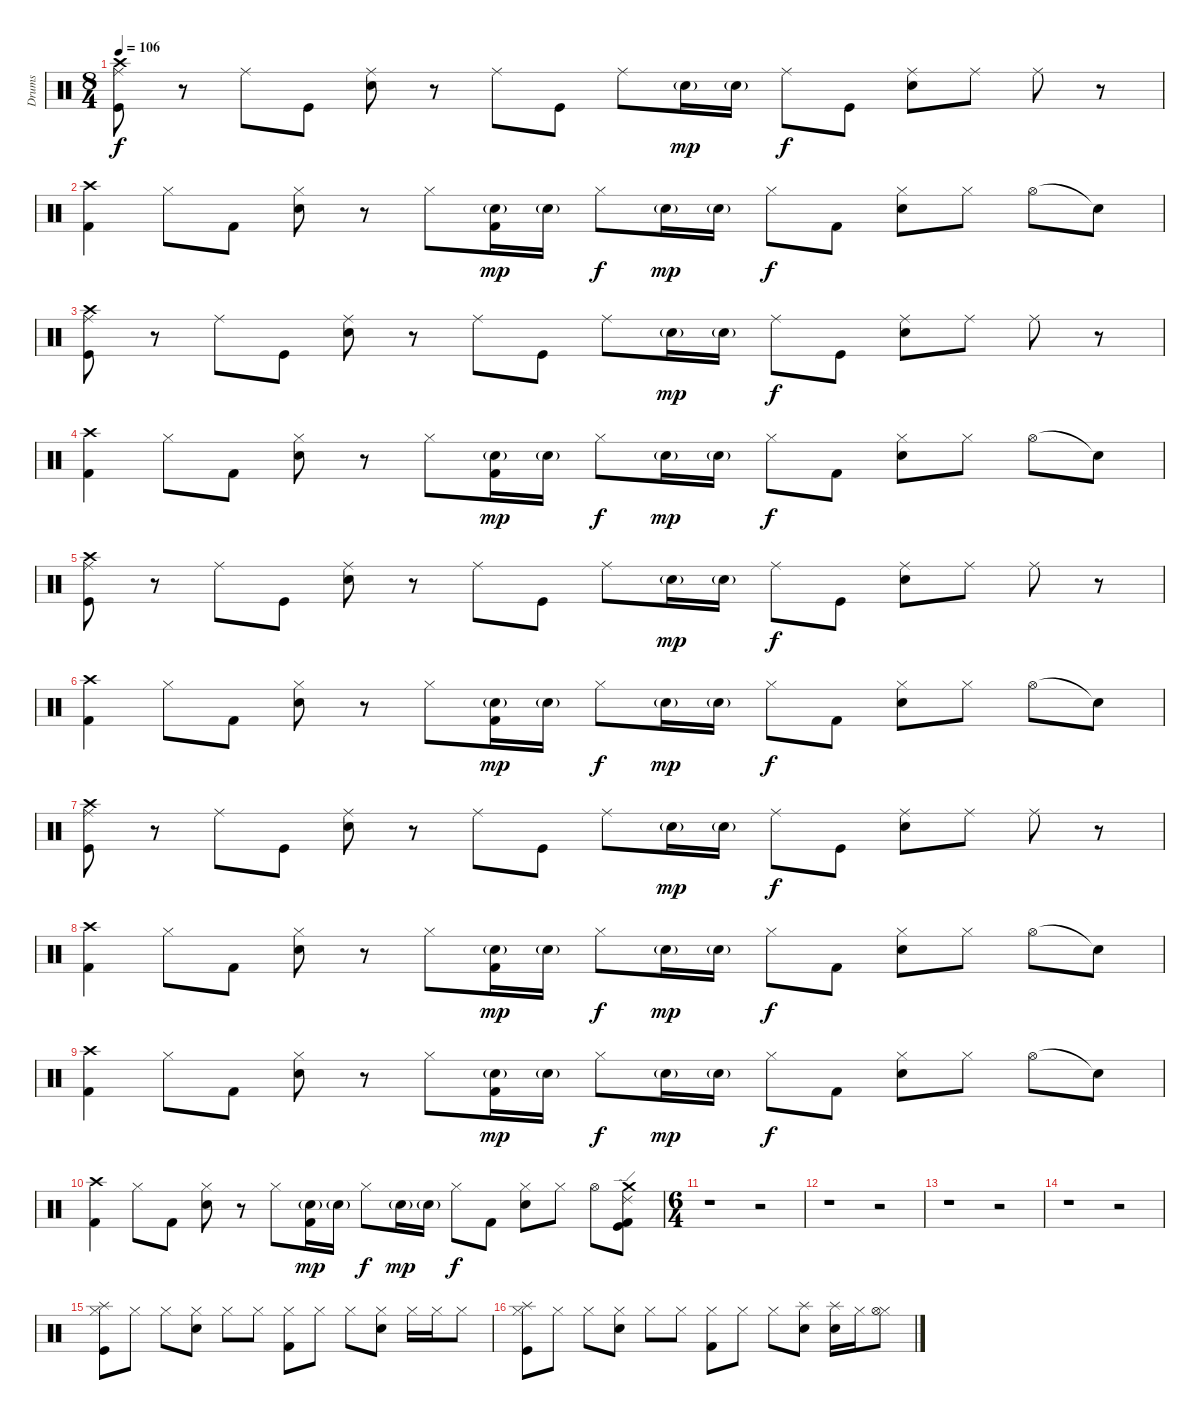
\track ("Drums" "Drums") {instrument percussion}
\staff {score}
\articulation defaults
\ts (8 4)
\tempo 106
\clef neutral
\ks c
("Ride (middle)" "Crash high (hit)" "Kick (hit)").8{dy f} r.8 "Ride (middle)".8 "Kick (hit)".8 ("Ride (middle)" "Electric Snare (hit)").8 r.8 "Ride (middle)".8 "Kick (hit)".8 "Ride (middle)".8 "Electric Snare (hit)"{g}.16{dy mp} "Electric Snare (hit)"{g}.16 "Ride (middle)".8{dy f} "Kick (hit)".8 ("Ride (middle)" "Electric Snare (hit)").8 "Ride (middle)".8 "Ride (middle)".8 r.8 |
("Crash high (hit)" "Kick (hit) 2").4 "Hi-Hat (closed)".8 "Kick (hit) 2".8 ("Hi-Hat (closed)" "Electric Snare (hit)").8 r.8 "Hi-Hat (closed)".8 ("Electric Snare (hit)"{g} "Kick (hit) 2").16{dy mp} "Electric Snare (hit)"{g}.16 "Hi-Hat (closed)".8{dy f} "Electric Snare (hit)"{g}.16{dy mp} "Electric Snare (hit)"{g}.16 "Hi-Hat (closed)".8{dy f} "Kick (hit) 2".8 ("Hi-Hat (closed)" "Electric Snare (hit)").8 "Hi-Hat (closed)".8 "Hi-Hat (open)".8 "Snare (hit)"{t}.8 |
("Ride (middle)" "Crash high (hit)" "Kick (hit)").8 r.8 "Ride (middle)".8 "Kick (hit)".8 ("Ride (middle)" "Electric Snare (hit)").8 r.8 "Ride (middle)".8 "Kick (hit)".8 "Ride (middle)".8 "Electric Snare (hit)"{g}.16{dy mp} "Electric Snare (hit)"{g}.16 "Ride (middle)".8{dy f} "Kick (hit)".8 ("Ride (middle)" "Electric Snare (hit)").8 "Ride (middle)".8 "Ride (middle)".8 r.8 |
("Crash high (hit)" "Kick (hit) 2").4 "Hi-Hat (closed)".8 "Kick (hit) 2".8 ("Hi-Hat (closed)" "Electric Snare (hit)").8 r.8 "Hi-Hat (closed)".8 ("Electric Snare (hit)"{g} "Kick (hit) 2").16{dy mp} "Electric Snare (hit)"{g}.16 "Hi-Hat (closed)".8{dy f} "Electric Snare (hit)"{g}.16{dy mp} "Electric Snare (hit)"{g}.16 "Hi-Hat (closed)".8{dy f} "Kick (hit) 2".8 ("Hi-Hat (closed)" "Electric Snare (hit)").8 "Hi-Hat (closed)".8 "Hi-Hat (open)".8 "Snare (hit)"{t}.8 |
("Ride (middle)" "Crash high (hit)" "Kick (hit)").8 r.8 "Ride (middle)".8 "Kick (hit)".8 ("Ride (middle)" "Electric Snare (hit)").8 r.8 "Ride (middle)".8 "Kick (hit)".8 "Ride (middle)".8 "Electric Snare (hit)"{g}.16{dy mp} "Electric Snare (hit)"{g}.16 "Ride (middle)".8{dy f} "Kick (hit)".8 ("Ride (middle)" "Electric Snare (hit)").8 "Ride (middle)".8 "Ride (middle)".8 r.8 |
("Crash high (hit)" "Kick (hit) 2").4 "Hi-Hat (closed)".8 "Kick (hit) 2".8 ("Hi-Hat (closed)" "Electric Snare (hit)").8 r.8 "Hi-Hat (closed)".8 ("Electric Snare (hit)"{g} "Kick (hit) 2").16{dy mp} "Electric Snare (hit)"{g}.16 "Hi-Hat (closed)".8{dy f} "Electric Snare (hit)"{g}.16{dy mp} "Electric Snare (hit)"{g}.16 "Hi-Hat (closed)".8{dy f} "Kick (hit) 2".8 ("Hi-Hat (closed)" "Electric Snare (hit)").8 "Hi-Hat (closed)".8 "Hi-Hat (open)".8 "Snare (hit)"{t}.8 |
("Ride (middle)" "Crash high (hit)" "Kick (hit)").8 r.8 "Ride (middle)".8 "Kick (hit)".8 ("Ride (middle)" "Electric Snare (hit)").8 r.8 "Ride (middle)".8 "Kick (hit)".8 "Ride (middle)".8 "Electric Snare (hit)"{g}.16{dy mp} "Electric Snare (hit)"{g}.16 "Ride (middle)".8{dy f} "Kick (hit)".8 ("Ride (middle)" "Electric Snare (hit)").8 "Ride (middle)".8 "Ride (middle)".8 r.8 |
("Crash high (hit)" "Kick (hit) 2").4 "Hi-Hat (closed)".8 "Kick (hit) 2".8 ("Hi-Hat (closed)" "Electric Snare (hit)").8 r.8 "Hi-Hat (closed)".8 ("Electric Snare (hit)"{g} "Kick (hit) 2").16{dy mp} "Electric Snare (hit)"{g}.16 "Hi-Hat (closed)".8{dy f} "Electric Snare (hit)"{g}.16{dy mp} "Electric Snare (hit)"{g}.16 "Hi-Hat (closed)".8{dy f} "Kick (hit) 2".8 ("Hi-Hat (closed)" "Electric Snare (hit)").8 "Hi-Hat (closed)".8 "Hi-Hat (open)".8 "Snare (hit)"{t}.8 |
("Crash high (hit)" "Kick (hit) 2").4 "Hi-Hat (closed)".8 "Kick (hit) 2".8 ("Hi-Hat (closed)" "Electric Snare (hit)").8 r.8 "Hi-Hat (closed)".8 ("Electric Snare (hit)"{g} "Kick (hit) 2").16{dy mp} "Electric Snare (hit)"{g}.16 "Hi-Hat (closed)".8{dy f} "Electric Snare (hit)"{g}.16{dy mp} "Electric Snare (hit)"{g}.16 "Hi-Hat (closed)".8{dy f} "Kick (hit) 2".8 ("Hi-Hat (closed)" "Electric Snare (hit)").8 "Hi-Hat (closed)".8 "Hi-Hat (open)".8 "Snare (hit)"{t}.8 |
("Crash high (hit)" "Kick (hit) 2").4 "Hi-Hat (closed)".8 "Kick (hit) 2".8 ("Hi-Hat (closed)" "Electric Snare (hit)").8 r.8 "Hi-Hat (closed)".8 ("Electric Snare (hit)"{g} "Kick (hit) 2").16{dy mp} "Electric Snare (hit)"{g}.16 "Hi-Hat (closed)".8{dy f} "Electric Snare (hit)"{g}.16{dy mp} "Electric Snare (hit)"{g}.16 "Hi-Hat (closed)".8{dy f} "Kick (hit) 2".8 ("Hi-Hat (closed)" "Electric Snare (hit)").8 "Hi-Hat (closed)".8 "Hi-Hat (open)".8 ("Ride (edge) 2" "Crash medium (hit)" "Kick (hit)" "Kick (hit) 2").8 |
\ts (6 4)
r.1 r.2 |
r.1 r.2 |
r.1 r.2 |
r.1 r.2 |
("Hi-Hat (closed)" "Splash (hit)" "Kick (hit)").8 "Hi-Hat (closed)".8 "Hi-Hat (closed)".8 ("Hi-Hat (closed)" "Electric Snare (hit)").8 "Hi-Hat (closed)".8 "Hi-Hat (closed)".8 ("Hi-Hat (closed)" "Kick (hit) 2").8 "Hi-Hat (closed)".8 "Hi-Hat (closed)".8 ("Hi-Hat (closed)" "Electric Snare (hit)").8 "Hi-Hat (closed)".16 "Hi-Hat (closed)".16 "Hi-Hat (closed)".8 |
("Hi-Hat (closed)" "Splash (hit)" "Kick (hit)").8 "Hi-Hat (closed)".8 "Hi-Hat (closed)".8 ("Hi-Hat (closed)" "Electric Snare (hit)").8 "Hi-Hat (closed)".8 "Hi-Hat (closed)".8 ("Hi-Hat (closed)" "Kick (hit) 2").8 "Hi-Hat (closed)".8 "Hi-Hat (closed)".8 ("Splash (hit)" "Electric Snare (hit)").8 ("Splash (hit)" "Electric Snare (hit)").16 "Hi-Hat (closed)".16 ("Hi-Hat (closed)" "Hi-Hat (open)").8
